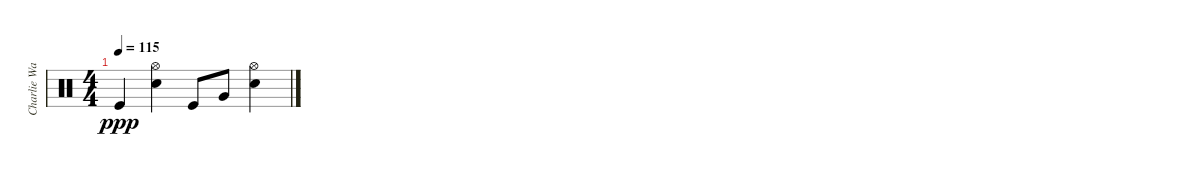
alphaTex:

\track ("Charlie Watts" "Charlie Wa") {instrument percussion}
\staff {score}
\articulation defaults
\ts (4 4)
\tempo 115
\clef neutral
\ks c "Kick (hit)".4{dy ppp}
("Hi-Hat (open)" "Snare (hit) 2").4 "Kick (hit)".8 "Very Low Tom (hit)".8 ("Hi-Hat (open)" "Snare (hit) 2").4
